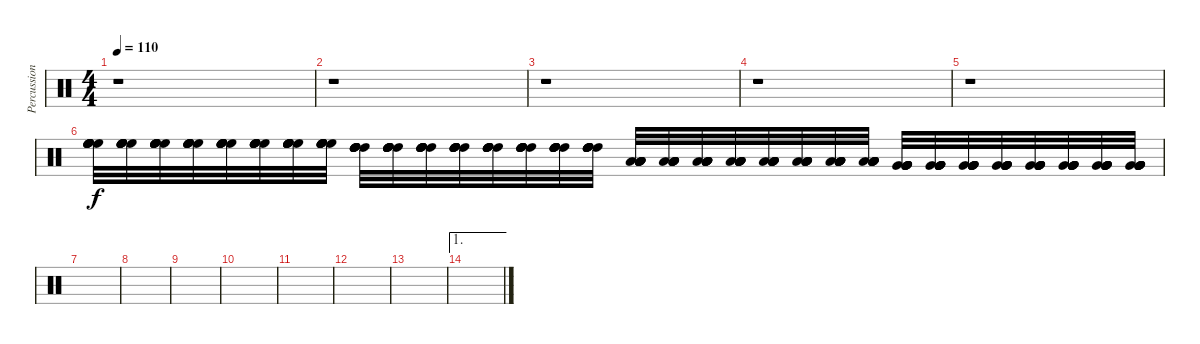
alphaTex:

\track ("Percussion 4" "Percussion") {instrument percussion}
\staff {score}
\articulation defaults
\ts (4 4)
\tempo 110
\clef neutral
\ks c
r.1{dy f} |
r.1 |
r.1 |
r.1 |
r.1 |
("High Floor Tom (hit)" "High Floor Tom (hit)" "High Floor Tom (hit)" "High Floor Tom (hit)" "High Floor Tom (hit)" "High Floor Tom (hit)").32 ("High Floor Tom (hit)" "High Floor Tom (hit)" "High Floor Tom (hit)" "High Floor Tom (hit)" "High Floor Tom (hit)" "High Floor Tom (hit)").32 ("High Floor Tom (hit)" "High Floor Tom (hit)" "High Floor Tom (hit)" "High Floor Tom (hit)" "High Floor Tom (hit)" "High Floor Tom (hit)").32 ("High Floor Tom (hit)" "High Floor Tom (hit)" "High Floor Tom (hit)" "High Floor Tom (hit)" "High Floor Tom (hit)" "High Floor Tom (hit)").32 ("High Floor Tom (hit)" "High Floor Tom (hit)" "High Floor Tom (hit)" "High Floor Tom (hit)" "High Floor Tom (hit)" "High Floor Tom (hit)").32 ("High Floor Tom (hit)" "High Floor Tom (hit)" "High Floor Tom (hit)" "High Floor Tom (hit)" "High Floor Tom (hit)" "High Floor Tom (hit)").32 ("High Floor Tom (hit)" "High Floor Tom (hit)" "High Floor Tom (hit)" "High Floor Tom (hit)" "High Floor Tom (hit)" "High Floor Tom (hit)").32 ("High Floor Tom (hit)" "High Floor Tom (hit)" "High Floor Tom (hit)" "High Floor Tom (hit)" "High Floor Tom (hit)" "High Floor Tom (hit)").32 ("High Tom (hit)" "High Tom (hit)" "High Tom (hit)" "High Tom (hit)" "High Tom (hit)" "High Tom (hit)").32 ("High Tom (hit)" "High Tom (hit)" "High Tom (hit)" "High Tom (hit)" "High Tom (hit)" "High Tom (hit)").32 ("High Tom (hit)" "High Tom (hit)" "High Tom (hit)" "High Tom (hit)" "High Tom (hit)" "High Tom (hit)").32 ("High Tom (hit)" "High Tom (hit)" "High Tom (hit)" "High Tom (hit)" "High Tom (hit)" "High Tom (hit)").32 ("High Tom (hit)" "High Tom (hit)" "High Tom (hit)" "High Tom (hit)" "High Tom (hit)" "High Tom (hit)").32 ("High Tom (hit)" "High Tom (hit)" "High Tom (hit)" "High Tom (hit)" "High Tom (hit)" "High Tom (hit)").32 ("High Tom (hit)" "High Tom (hit)" "High Tom (hit)" "High Tom (hit)" "High Tom (hit)" "High Tom (hit)").32 ("High Tom (hit)" "High Tom (hit)" "High Tom (hit)" "High Tom (hit)" "High Tom (hit)" "High Tom (hit)").32 ("Low Tom (hit)" "Low Tom (hit)" "Low Tom (hit)" "Low Tom (hit)" "Low Tom (hit)" "Low Tom (hit)").32 ("Low Tom (hit)" "Low Tom (hit)" "Low Tom (hit)" "Low Tom (hit)" "Low Tom (hit)" "Low Tom (hit)").32 ("Low Tom (hit)" "Low Tom (hit)" "Low Tom (hit)" "Low Tom (hit)" "Low Tom (hit)" "Low Tom (hit)").32 ("Low Tom (hit)" "Low Tom (hit)" "Low Tom (hit)" "Low Tom (hit)" "Low Tom (hit)" "Low Tom (hit)").32 ("Low Tom (hit)" "Low Tom (hit)" "Low Tom (hit)" "Low Tom (hit)" "Low Tom (hit)" "Low Tom (hit)").32 ("Low Tom (hit)" "Low Tom (hit)" "Low Tom (hit)" "Low Tom (hit)" "Low Tom (hit)" "Low Tom (hit)").32 ("Low Tom (hit)" "Low Tom (hit)" "Low Tom (hit)" "Low Tom (hit)" "Low Tom (hit)" "Low Tom (hit)").32 ("Low Tom (hit)" "Low Tom (hit)" "Low Tom (hit)" "Low Tom (hit)" "Low Tom (hit)" "Low Tom (hit)").32 ("Very Low Tom (hit)" "Very Low Tom (hit)" "Very Low Tom (hit)" "Very Low Tom (hit)" "Very Low Tom (hit)" "Very Low Tom (hit)").32 ("Very Low Tom (hit)" "Very Low Tom (hit)" "Very Low Tom (hit)" "Very Low Tom (hit)" "Very Low Tom (hit)" "Very Low Tom (hit)").32 ("Very Low Tom (hit)" "Very Low Tom (hit)" "Very Low Tom (hit)" "Very Low Tom (hit)" "Very Low Tom (hit)" "Very Low Tom (hit)").32 ("Very Low Tom (hit)" "Very Low Tom (hit)" "Very Low Tom (hit)" "Very Low Tom (hit)" "Very Low Tom (hit)" "Very Low Tom (hit)").32 ("Very Low Tom (hit)" "Very Low Tom (hit)" "Very Low Tom (hit)" "Very Low Tom (hit)" "Very Low Tom (hit)" "Very Low Tom (hit)").32 ("Very Low Tom (hit)" "Very Low Tom (hit)" "Very Low Tom (hit)" "Very Low Tom (hit)" "Very Low Tom (hit)" "Very Low Tom (hit)").32 ("Very Low Tom (hit)" "Very Low Tom (hit)" "Very Low Tom (hit)" "Very Low Tom (hit)" "Very Low Tom (hit)" "Very Low Tom (hit)").32 ("Very Low Tom (hit)" "Very Low Tom (hit)" "Very Low Tom (hit)" "Very Low Tom (hit)" "Very Low Tom (hit)" "Very Low Tom (hit)").32 |
|
|
|
|
|
|
|
\ae 1
